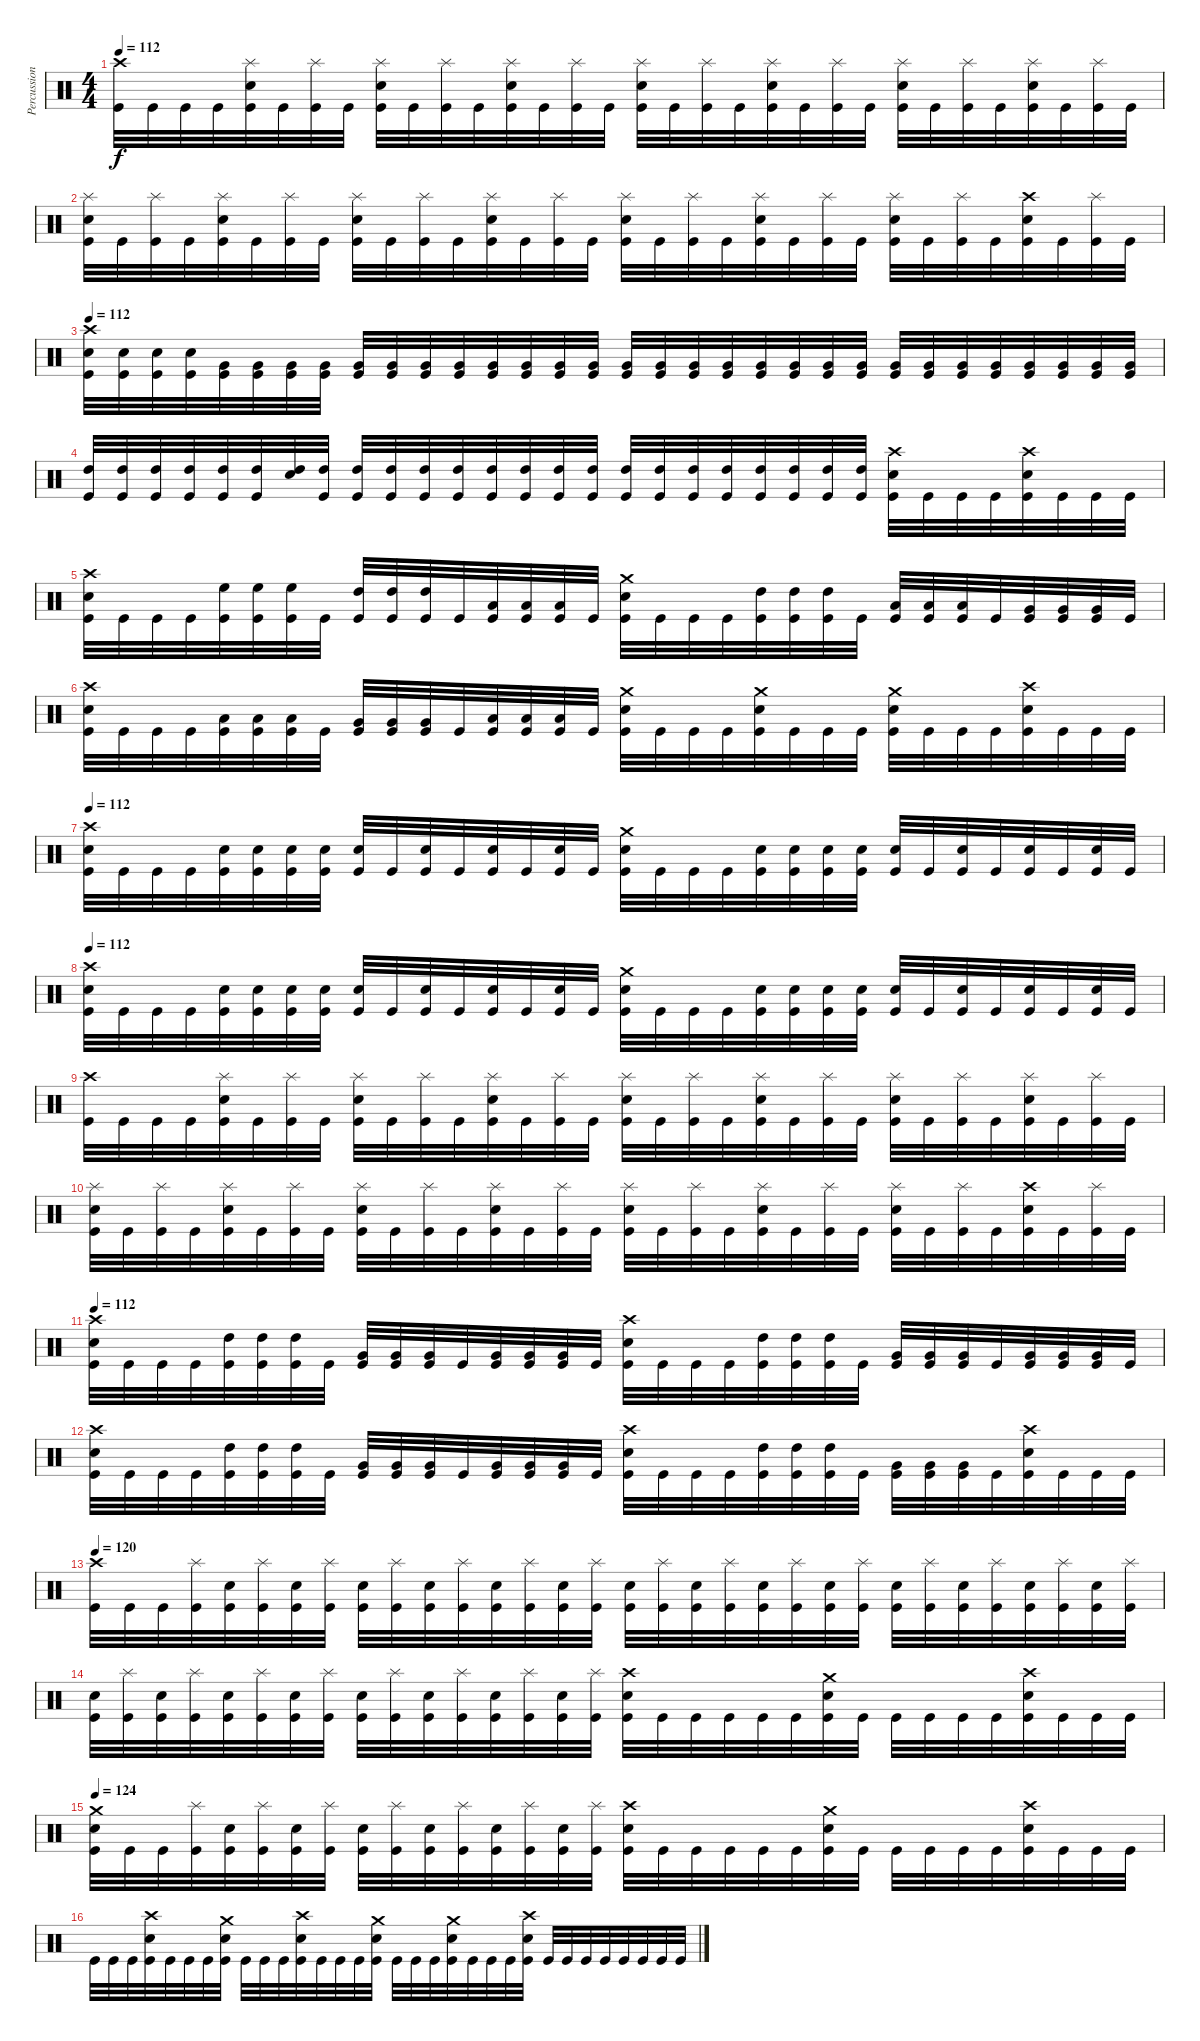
\track ("Percussion" "Percussion") {instrument percussion}
\staff {score}
\articulation defaults
\ts (4 4)
\tempo 112
\clef neutral
\ks c
("Crash high (hit)" "Kick (hit)").32{dy f} "Kick (hit)".32 "Kick (hit)".32 "Kick (hit)".32 ("Splash (hit)" "Electric Snare (hit)" "Kick (hit)").32 "Kick (hit)".32 ("Splash (hit)" "Kick (hit)").32 "Kick (hit)".32 ("Splash (hit)" "Electric Snare (hit)" "Kick (hit)").32 "Kick (hit)".32 ("Splash (hit)" "Kick (hit)").32 "Kick (hit)".32 ("Splash (hit)" "Electric Snare (hit)" "Kick (hit)").32 "Kick (hit)".32 ("Splash (hit)" "Kick (hit)").32 "Kick (hit)".32 ("Splash (hit)" "Electric Snare (hit)" "Kick (hit)").32 "Kick (hit)".32 ("Splash (hit)" "Kick (hit)").32 "Kick (hit)".32 ("Splash (hit)" "Electric Snare (hit)" "Kick (hit)").32 "Kick (hit)".32 ("Splash (hit)" "Kick (hit)").32 "Kick (hit)".32 ("Splash (hit)" "Electric Snare (hit)" "Kick (hit)").32 "Kick (hit)".32 ("Splash (hit)" "Kick (hit)").32 "Kick (hit)".32 ("Splash (hit)" "Electric Snare (hit)" "Kick (hit)").32 "Kick (hit)".32 ("Splash (hit)" "Kick (hit)").32 "Kick (hit)".32 |
("Splash (hit)" "Electric Snare (hit)" "Kick (hit)").32 "Kick (hit)".32 ("Splash (hit)" "Kick (hit)").32 "Kick (hit)".32 ("Splash (hit)" "Electric Snare (hit)" "Kick (hit)").32 "Kick (hit)".32 ("Splash (hit)" "Kick (hit)").32 "Kick (hit)".32 ("Splash (hit)" "Electric Snare (hit)" "Kick (hit)").32 "Kick (hit)".32 ("Splash (hit)" "Kick (hit)").32 "Kick (hit)".32 ("Splash (hit)" "Electric Snare (hit)" "Kick (hit)").32 "Kick (hit)".32 ("Splash (hit)" "Kick (hit)").32 "Kick (hit)".32 ("Splash (hit)" "Electric Snare (hit)" "Kick (hit)").32 "Kick (hit)".32 ("Splash (hit)" "Kick (hit)").32 "Kick (hit)".32 ("Splash (hit)" "Electric Snare (hit)" "Kick (hit)").32 "Kick (hit)".32 ("Splash (hit)" "Kick (hit)").32 "Kick (hit)".32 ("Splash (hit)" "Electric Snare (hit)" "Kick (hit)").32 "Kick (hit)".32 ("Splash (hit)" "Kick (hit)").32 "Kick (hit)".32 ("Crash high (hit)" "Electric Snare (hit)" "Kick (hit)").32 "Kick (hit)".32 ("Splash (hit)" "Kick (hit)").32 "Kick (hit)".32 |
\tempo 112
("Crash high (hit)" "Electric Snare (hit)" "Kick (hit)").32 ("Electric Snare (hit)" "Kick (hit)").32 ("Electric Snare (hit)" "Kick (hit)").32 ("Electric Snare (hit)" "Kick (hit)").32 ("Very Low Tom (hit)" "Kick (hit)").32 ("Very Low Tom (hit)" "Kick (hit)").32 ("Very Low Tom (hit)" "Kick (hit)").32 ("Very Low Tom (hit)" "Kick (hit)").32 ("Very Low Tom (hit)" "Kick (hit)").32 ("Very Low Tom (hit)" "Kick (hit)").32 ("Very Low Tom (hit)" "Kick (hit)").32 ("Very Low Tom (hit)" "Kick (hit)").32 ("Very Low Tom (hit)" "Kick (hit)").32 ("Very Low Tom (hit)" "Kick (hit)").32 ("Very Low Tom (hit)" "Kick (hit)").32 ("Very Low Tom (hit)" "Kick (hit)").32 ("Very Low Tom (hit)" "Kick (hit)").32 ("Very Low Tom (hit)" "Kick (hit)").32 ("Very Low Tom (hit)" "Kick (hit)").32 ("Very Low Tom (hit)" "Kick (hit)").32 ("Very Low Tom (hit)" "Kick (hit)").32 ("Very Low Tom (hit)" "Kick (hit)").32 ("Very Low Tom (hit)" "Kick (hit)").32 ("Very Low Tom (hit)" "Kick (hit)").32 ("Very Low Tom (hit)" "Kick (hit)").32 ("Very Low Tom (hit)" "Kick (hit)").32 ("Very Low Tom (hit)" "Kick (hit)").32 ("Very Low Tom (hit)" "Kick (hit)").32 ("Very Low Tom (hit)" "Kick (hit)").32 ("Very Low Tom (hit)" "Kick (hit)").32 ("Very Low Tom (hit)" "Kick (hit)").32 ("Very Low Tom (hit)" "Kick (hit)").32 |
("High Tom (hit)" "Kick (hit)").32 ("High Tom (hit)" "Kick (hit)").32 ("High Tom (hit)" "Kick (hit)").32 ("High Tom (hit)" "Kick (hit)").32 ("High Tom (hit)" "Kick (hit)").32 ("High Tom (hit)" "Kick (hit)").32 ("High Tom (hit)" "Snare (hit)").32 ("High Tom (hit)" "Kick (hit)").32 ("High Tom (hit)" "Kick (hit)").32 ("High Tom (hit)" "Kick (hit)").32 ("High Tom (hit)" "Kick (hit)").32 ("High Tom (hit)" "Kick (hit)").32 ("High Tom (hit)" "Kick (hit)").32 ("High Tom (hit)" "Kick (hit)").32 ("High Tom (hit)" "Kick (hit)").32 ("High Tom (hit)" "Kick (hit)").32 ("High Tom (hit)" "Kick (hit)").32 ("High Tom (hit)" "Kick (hit)").32 ("High Tom (hit)" "Kick (hit)").32 ("High Tom (hit)" "Kick (hit)").32 ("High Tom (hit)" "Kick (hit)").32 ("High Tom (hit)" "Kick (hit)").32 ("High Tom (hit)" "Kick (hit)").32 ("High Tom (hit)" "Kick (hit)").32 ("Crash high (hit)" "Electric Snare (hit)" "Kick (hit)").32 "Kick (hit)".32 "Kick (hit)".32 "Kick (hit)".32 ("Crash high (hit)" "Electric Snare (hit)" "Kick (hit)").32 "Kick (hit)".32 "Kick (hit)".32 "Kick (hit)".32 |
("Crash high (hit)" "Electric Snare (hit)" "Kick (hit)").32 "Kick (hit)".32 "Kick (hit)".32 "Kick (hit)".32 ("High Floor Tom (hit)" "Kick (hit)").32 ("High Floor Tom (hit)" "Kick (hit)").32 ("High Floor Tom (hit)" "Kick (hit)").32 "Kick (hit)".32 ("High Tom (hit)" "Kick (hit)").32 ("High Tom (hit)" "Kick (hit)").32 ("High Tom (hit)" "Kick (hit)").32 "Kick (hit)".32 ("Low Tom (hit)" "Kick (hit)").32 ("Low Tom (hit)" "Kick (hit)").32 ("Low Tom (hit)" "Kick (hit)").32 "Kick (hit)".32 ("Crash medium (hit)" "Electric Snare (hit)" "Kick (hit)").32 "Kick (hit)".32 "Kick (hit)".32 "Kick (hit)".32 ("High Tom (hit)" "Kick (hit)").32 ("High Tom (hit)" "Kick (hit)").32 ("High Tom (hit)" "Kick (hit)").32 "Kick (hit)".32 ("Low Tom (hit)" "Kick (hit)").32 ("Low Tom (hit)" "Kick (hit)").32 ("Low Tom (hit)" "Kick (hit)").32 "Kick (hit)".32 ("Very Low Tom (hit)" "Kick (hit)").32 ("Very Low Tom (hit)" "Kick (hit)").32 ("Very Low Tom (hit)" "Kick (hit)").32 "Kick (hit)".32 |
("Crash high (hit)" "Electric Snare (hit)" "Kick (hit)").32 "Kick (hit)".32 "Kick (hit)".32 "Kick (hit)".32 ("Low Tom (hit)" "Kick (hit)").32 ("Low Tom (hit)" "Kick (hit)").32 ("Low Tom (hit)" "Kick (hit)").32 "Kick (hit)".32 ("Very Low Tom (hit)" "Kick (hit)").32 ("Very Low Tom (hit)" "Kick (hit)").32 ("Very Low Tom (hit)" "Kick (hit)").32 "Kick (hit)".32 ("Low Floor Tom (hit)" "Kick (hit)").32 ("Low Floor Tom (hit)" "Kick (hit)").32 ("Low Floor Tom (hit)" "Kick (hit)").32 "Kick (hit)".32 ("Crash medium (hit)" "Electric Snare (hit)" "Kick (hit)").32 "Kick (hit)".32 "Kick (hit)".32 "Kick (hit)".32 ("Crash medium (hit)" "Electric Snare (hit)" "Kick (hit)").32 "Kick (hit)".32 "Kick (hit)".32 "Kick (hit)".32 ("Crash medium (hit)" "Electric Snare (hit)" "Kick (hit)").32 "Kick (hit)".32 "Kick (hit)".32 "Kick (hit)".32 ("Crash high (hit)" "Electric Snare (hit)" "Kick (hit)").32 "Kick (hit)".32 "Kick (hit)".32 "Kick (hit)".32 |
\tempo 112
("Crash high (hit)" "Electric Snare (hit)" "Kick (hit)").32 "Kick (hit)".32 "Kick (hit)".32 "Kick (hit)".32 ("Electric Snare (hit)" "Kick (hit)").32 ("Electric Snare (hit)" "Kick (hit)").32 ("Electric Snare (hit)" "Kick (hit)").32 ("Electric Snare (hit)" "Kick (hit)").32 ("Electric Snare (hit)"{pm} "Kick (hit)").32 "Kick (hit)".32 ("Electric Snare (hit)"{pm} "Kick (hit)").32 "Kick (hit)".32 ("Electric Snare (hit)"{pm} "Kick (hit)").32 "Kick (hit)".32 ("Electric Snare (hit)"{pm} "Kick (hit)").32 "Kick (hit)".32 ("Crash medium (hit)" "Electric Snare (hit)" "Kick (hit)").32 "Kick (hit)".32 "Kick (hit)".32 "Kick (hit)".32 ("Electric Snare (hit)" "Kick (hit)").32 ("Electric Snare (hit)" "Kick (hit)").32 ("Electric Snare (hit)" "Kick (hit)").32 ("Electric Snare (hit)" "Kick (hit)").32 ("Electric Snare (hit)"{pm} "Kick (hit)").32 "Kick (hit)".32 ("Electric Snare (hit)"{pm} "Kick (hit)").32 "Kick (hit)".32 ("Electric Snare (hit)"{pm} "Kick (hit)").32 "Kick (hit)".32 ("Electric Snare (hit)"{pm} "Kick (hit)").32 "Kick (hit)".32 |
\tempo 112
("Crash high (hit)" "Electric Snare (hit)" "Kick (hit)").32 "Kick (hit)".32 "Kick (hit)".32 "Kick (hit)".32 ("Electric Snare (hit)" "Kick (hit)").32 ("Electric Snare (hit)" "Kick (hit)").32 ("Electric Snare (hit)" "Kick (hit)").32 ("Electric Snare (hit)" "Kick (hit)").32 ("Electric Snare (hit)" "Kick (hit)").32 "Kick (hit)".32 ("Electric Snare (hit)" "Kick (hit)").32 "Kick (hit)".32 ("Electric Snare (hit)" "Kick (hit)").32 "Kick (hit)".32 ("Electric Snare (hit)" "Kick (hit)").32 "Kick (hit)".32 ("Crash medium (hit)" "Electric Snare (hit)" "Kick (hit)").32 "Kick (hit)".32 "Kick (hit)".32 "Kick (hit)".32 ("Electric Snare (hit)" "Kick (hit)").32 ("Electric Snare (hit)" "Kick (hit)").32 ("Electric Snare (hit)" "Kick (hit)").32 ("Electric Snare (hit)" "Kick (hit)").32 ("Electric Snare (hit)" "Kick (hit)").32 "Kick (hit)".32 ("Electric Snare (hit)" "Kick (hit)").32 "Kick (hit)".32 ("Electric Snare (hit)" "Kick (hit)").32 "Kick (hit)".32 ("Electric Snare (hit)" "Kick (hit)").32 "Kick (hit)".32 |
("Crash high (hit)" "Kick (hit)").32 "Kick (hit)".32 "Kick (hit)".32 "Kick (hit)".32 ("Splash (hit)" "Electric Snare (hit)" "Kick (hit)").32 "Kick (hit)".32 ("Splash (hit)" "Kick (hit)").32 "Kick (hit)".32 ("Splash (hit)" "Electric Snare (hit)" "Kick (hit)").32 "Kick (hit)".32 ("Splash (hit)" "Kick (hit)").32 "Kick (hit)".32 ("Splash (hit)" "Electric Snare (hit)" "Kick (hit)").32 "Kick (hit)".32 ("Splash (hit)" "Kick (hit)").32 "Kick (hit)".32 ("Splash (hit)" "Electric Snare (hit)" "Kick (hit)").32 "Kick (hit)".32 ("Splash (hit)" "Kick (hit)").32 "Kick (hit)".32 ("Splash (hit)" "Electric Snare (hit)" "Kick (hit)").32 "Kick (hit)".32 ("Splash (hit)" "Kick (hit)").32 "Kick (hit)".32 ("Splash (hit)" "Electric Snare (hit)" "Kick (hit)").32 "Kick (hit)".32 ("Splash (hit)" "Kick (hit)").32 "Kick (hit)".32 ("Splash (hit)" "Electric Snare (hit)" "Kick (hit)").32 "Kick (hit)".32 ("Splash (hit)" "Kick (hit)").32 "Kick (hit)".32 |
("Splash (hit)" "Electric Snare (hit)" "Kick (hit)").32 "Kick (hit)".32 ("Splash (hit)" "Kick (hit)").32 "Kick (hit)".32 ("Splash (hit)" "Electric Snare (hit)" "Kick (hit)").32 "Kick (hit)".32 ("Splash (hit)" "Kick (hit)").32 "Kick (hit)".32 ("Splash (hit)" "Electric Snare (hit)" "Kick (hit)").32 "Kick (hit)".32 ("Splash (hit)" "Kick (hit)").32 "Kick (hit)".32 ("Splash (hit)" "Electric Snare (hit)" "Kick (hit)").32 "Kick (hit)".32 ("Splash (hit)" "Kick (hit)").32 "Kick (hit)".32 ("Splash (hit)" "Electric Snare (hit)" "Kick (hit)").32 "Kick (hit)".32 ("Splash (hit)" "Kick (hit)").32 "Kick (hit)".32 ("Splash (hit)" "Electric Snare (hit)" "Kick (hit)").32 "Kick (hit)".32 ("Splash (hit)" "Kick (hit)").32 "Kick (hit)".32 ("Splash (hit)" "Electric Snare (hit)" "Kick (hit)").32 "Kick (hit)".32 ("Splash (hit)" "Kick (hit)").32 "Kick (hit)".32 ("Crash high (hit)" "Electric Snare (hit)" "Kick (hit)").32 "Kick (hit)".32 ("Splash (hit)" "Kick (hit)").32 "Kick (hit)".32 |
\tempo 112
("Crash high (hit)" "Electric Snare (hit)" "Kick (hit)").32 "Kick (hit)".32 "Kick (hit)".32 "Kick (hit)".32 ("High Tom (hit)" "Kick (hit)").32 ("High Tom (hit)" "Kick (hit)").32 ("High Tom (hit)" "Kick (hit)").32 "Kick (hit)".32 ("Very Low Tom (hit)" "Kick (hit)").32 ("Very Low Tom (hit)" "Kick (hit)").32 ("Very Low Tom (hit)" "Kick (hit)").32 "Kick (hit)".32 ("Very Low Tom (hit)" "Kick (hit)").32 ("Very Low Tom (hit)" "Kick (hit)").32 ("Very Low Tom (hit)" "Kick (hit)").32 "Kick (hit)".32 ("Crash high (hit)" "Electric Snare (hit)" "Kick (hit)").32 "Kick (hit)".32 "Kick (hit)".32 "Kick (hit)".32 ("High Tom (hit)" "Kick (hit)").32 ("High Tom (hit)" "Kick (hit)").32 ("High Tom (hit)" "Kick (hit)").32 "Kick (hit)".32 ("Very Low Tom (hit)" "Kick (hit)").32 ("Very Low Tom (hit)" "Kick (hit)").32 ("Very Low Tom (hit)" "Kick (hit)").32 "Kick (hit)".32 ("Very Low Tom (hit)" "Kick (hit)").32 ("Very Low Tom (hit)" "Kick (hit)").32 ("Very Low Tom (hit)" "Kick (hit)").32 "Kick (hit)".32 |
("Crash high (hit)" "Electric Snare (hit)" "Kick (hit)").32 "Kick (hit)".32 "Kick (hit)".32 "Kick (hit)".32 ("High Tom (hit)" "Kick (hit)").32 ("High Tom (hit)" "Kick (hit)").32 ("High Tom (hit)" "Kick (hit)").32 "Kick (hit)".32 ("Very Low Tom (hit)" "Kick (hit)").32 ("Very Low Tom (hit)" "Kick (hit)").32 ("Very Low Tom (hit)" "Kick (hit)").32 "Kick (hit)".32 ("Very Low Tom (hit)" "Kick (hit)").32 ("Very Low Tom (hit)" "Kick (hit)").32 ("Very Low Tom (hit)" "Kick (hit)").32 "Kick (hit)".32 ("Crash high (hit)" "Electric Snare (hit)" "Kick (hit)").32 "Kick (hit)".32 "Kick (hit)".32 "Kick (hit)".32 ("High Tom (hit)" "Kick (hit)").32 ("High Tom (hit)" "Kick (hit)").32 ("High Tom (hit)" "Kick (hit)").32 "Kick (hit)".32 ("Very Low Tom (hit)" "Kick (hit)").32 ("Very Low Tom (hit)" "Kick (hit)").32 ("Very Low Tom (hit)" "Kick (hit)").32 "Kick (hit)".32 ("Crash high (hit)" "Electric Snare (hit)" "Kick (hit)").32 "Kick (hit)".32 "Kick (hit)".32 "Kick (hit)".32 |
\tempo 120
("Crash high (hit)" "Kick (hit)").32 "Kick (hit)".32 "Kick (hit)".32 ("Splash (hit)" "Kick (hit)").32 ("Electric Snare (hit)" "Kick (hit)").32 ("Splash (hit)" "Kick (hit)").32 ("Electric Snare (hit)" "Kick (hit)").32 ("Splash (hit)" "Kick (hit)").32 ("Electric Snare (hit)" "Kick (hit)").32 ("Splash (hit)" "Kick (hit)").32 ("Electric Snare (hit)" "Kick (hit)").32 ("Splash (hit)" "Kick (hit)").32 ("Electric Snare (hit)" "Kick (hit)").32 ("Splash (hit)" "Kick (hit)").32 ("Electric Snare (hit)" "Kick (hit)").32 ("Splash (hit)" "Kick (hit)").32 ("Electric Snare (hit)" "Kick (hit)").32 ("Splash (hit)" "Kick (hit)").32 ("Electric Snare (hit)" "Kick (hit)").32 ("Splash (hit)" "Kick (hit)").32 ("Electric Snare (hit)" "Kick (hit)").32 ("Splash (hit)" "Kick (hit)").32 ("Electric Snare (hit)" "Kick (hit)").32 ("Splash (hit)" "Kick (hit)").32 ("Electric Snare (hit)" "Kick (hit)").32 ("Splash (hit)" "Kick (hit)").32 ("Electric Snare (hit)" "Kick (hit)").32 ("Splash (hit)" "Kick (hit)").32 ("Electric Snare (hit)" "Kick (hit)").32 ("Splash (hit)" "Kick (hit)").32 ("Electric Snare (hit)" "Kick (hit)").32 ("Splash (hit)" "Kick (hit)").32 |
("Electric Snare (hit)" "Kick (hit)").32 ("Splash (hit)" "Kick (hit)").32 ("Electric Snare (hit)" "Kick (hit)").32 ("Splash (hit)" "Kick (hit)").32 ("Electric Snare (hit)" "Kick (hit)").32 ("Splash (hit)" "Kick (hit)").32 ("Electric Snare (hit)" "Kick (hit)").32 ("Splash (hit)" "Kick (hit)").32 ("Electric Snare (hit)" "Kick (hit)").32 ("Splash (hit)" "Kick (hit)").32 ("Electric Snare (hit)" "Kick (hit)").32 ("Splash (hit)" "Kick (hit)").32 ("Electric Snare (hit)" "Kick (hit)").32 ("Splash (hit)" "Kick (hit)").32 ("Electric Snare (hit)" "Kick (hit)").32 ("Splash (hit)" "Kick (hit)").32 ("Crash high (hit)" "Electric Snare (hit)" "Kick (hit)").32 "Kick (hit)".32 "Kick (hit)".32 "Kick (hit)".32 "Kick (hit)".32 "Kick (hit)".32 ("Crash medium (hit)" "Electric Snare (hit)" "Kick (hit)").32 "Kick (hit)".32 "Kick (hit)".32 "Kick (hit)".32 "Kick (hit)".32 "Kick (hit)".32 ("Crash high (hit)" "Electric Snare (hit)" "Kick (hit)").32 "Kick (hit)".32 "Kick (hit)".32 "Kick (hit)".32 |
\tempo 124
("Crash medium (hit)" "Electric Snare (hit)" "Kick (hit)").32 "Kick (hit)".32 "Kick (hit)".32 ("Splash (hit)" "Kick (hit)").32 ("Electric Snare (hit)" "Kick (hit)").32 ("Splash (hit)" "Kick (hit)").32 ("Electric Snare (hit)" "Kick (hit)").32 ("Splash (hit)" "Kick (hit)").32 ("Electric Snare (hit)" "Kick (hit)").32 ("Splash (hit)" "Kick (hit)").32 ("Electric Snare (hit)" "Kick (hit)").32 ("Splash (hit)" "Kick (hit)").32 ("Electric Snare (hit)" "Kick (hit)").32 ("Splash (hit)" "Kick (hit)").32 ("Electric Snare (hit)" "Kick (hit)").32 ("Splash (hit)" "Kick (hit)").32 ("Crash high (hit)" "Electric Snare (hit)" "Kick (hit)").32 "Kick (hit)".32 "Kick (hit)".32 "Kick (hit)".32 "Kick (hit)".32 "Kick (hit)".32 ("Crash medium (hit)" "Electric Snare (hit)" "Kick (hit)").32 "Kick (hit)".32 "Kick (hit)".32 "Kick (hit)".32 "Kick (hit)".32 "Kick (hit)".32 ("Crash high (hit)" "Electric Snare (hit)" "Kick (hit)").32 "Kick (hit)".32 "Kick (hit)".32 "Kick (hit)".32 |
"Kick (hit)".32 "Kick (hit)".32 "Kick (hit)".32 ("Crash high (hit)" "Electric Snare (hit)" "Kick (hit)").32 "Kick (hit)".32 "Kick (hit)".32 "Kick (hit)".32 ("Crash medium (hit)" "Electric Snare (hit)" "Kick (hit)").32 "Kick (hit)".32 "Kick (hit)".32 "Kick (hit)".32 ("Crash high (hit)" "Electric Snare (hit)" "Kick (hit)").32 "Kick (hit)".32 "Kick (hit)".32 "Kick (hit)".32 ("Crash medium (hit)" "Electric Snare (hit)" "Kick (hit)").32 "Kick (hit)".32 "Kick (hit)".32 "Kick (hit)".32 ("Crash medium (hit)" "Electric Snare (hit)" "Kick (hit)").32 "Kick (hit)".32 "Kick (hit)".32 "Kick (hit)".32 ("Crash high (hit)" "Electric Snare (hit)" "Kick (hit)").32 "Kick (hit)".32 "Kick (hit)".32 "Kick (hit)".32 "Kick (hit)".32 "Kick (hit)".32 "Kick (hit)".32 "Kick (hit)".32 "Kick (hit)".32
